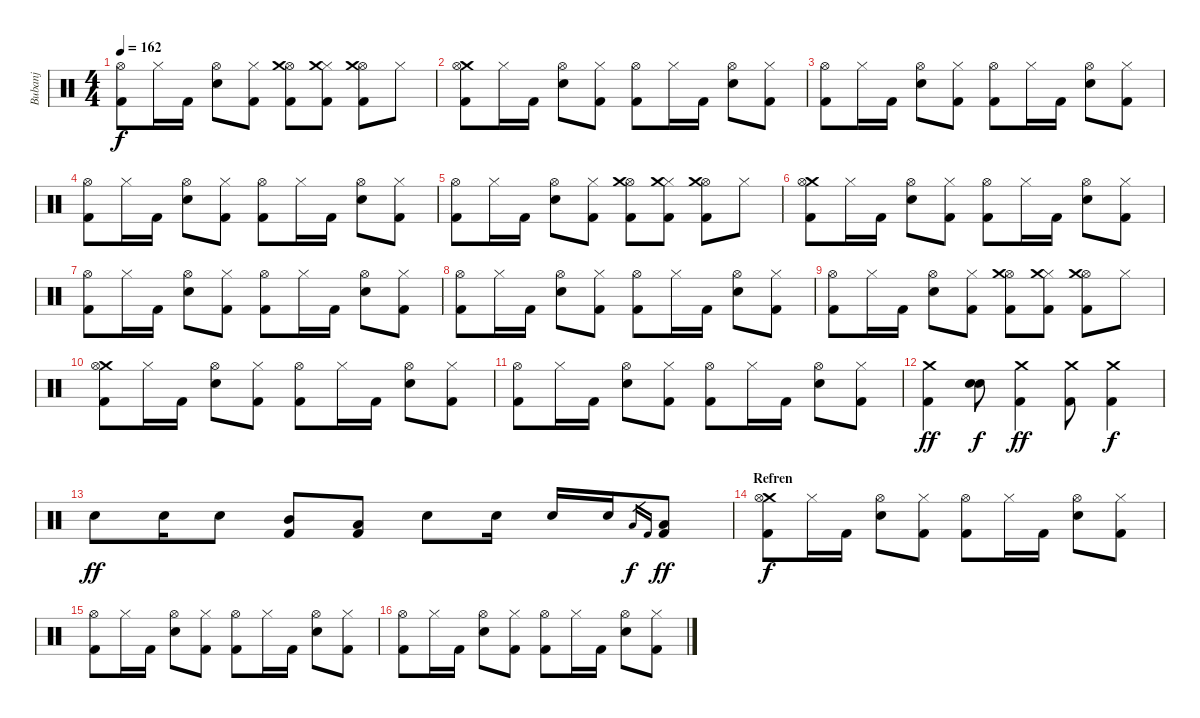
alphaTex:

\track ("Bubanj" "Bubanj") {instrument percussion}
\staff {score}
\articulation defaults
\ts (4 4)
\tempo 162
\clef neutral
\ks c
("Hi-Hat (open)" "Kick (hit) 2").8{dy f} "Hi-Hat (closed)".16 "Kick (hit) 2".16 ("Hi-Hat (open)" "Snare (hit) 2").8 ("Hi-Hat (closed)" "Kick (hit) 2").8 ("Hi-Hat (open)" "Kick (hit) 2" "Crash medium (hit)").8 ("Hi-Hat (closed)" "Kick (hit) 2" "Crash medium (hit)").8 ("Hi-Hat (open)" "Kick (hit) 2" "Crash medium (hit)").8 "Hi-Hat (closed)".8 |
("Crash medium (hit)" "Kick (hit) 2" "Hi-Hat (open)").8 "Hi-Hat (closed)".16 "Kick (hit) 2".16 ("Hi-Hat (open)" "Snare (hit) 2").8 ("Hi-Hat (closed)" "Kick (hit) 2").8 ("Hi-Hat (open)" "Kick (hit) 2").8 "Hi-Hat (closed)".16 "Kick (hit) 2".16 ("Hi-Hat (open)" "Snare (hit) 2").8 ("Hi-Hat (closed)" "Kick (hit) 2").8 |
("Hi-Hat (open)" "Kick (hit) 2").8 "Hi-Hat (closed)".16 "Kick (hit) 2".16 ("Hi-Hat (open)" "Snare (hit) 2").8 ("Hi-Hat (closed)" "Kick (hit) 2").8 ("Hi-Hat (open)" "Kick (hit) 2").8 "Hi-Hat (closed)".16 "Kick (hit) 2".16 ("Hi-Hat (open)" "Snare (hit) 2").8 ("Hi-Hat (closed)" "Kick (hit) 2").8 |
("Hi-Hat (open)" "Kick (hit) 2").8 "Hi-Hat (closed)".16 "Kick (hit) 2".16 ("Hi-Hat (open)" "Snare (hit) 2").8 ("Hi-Hat (closed)" "Kick (hit) 2").8 ("Hi-Hat (open)" "Kick (hit) 2").8 "Hi-Hat (closed)".16 "Kick (hit) 2".16 ("Hi-Hat (open)" "Snare (hit) 2").8 ("Hi-Hat (closed)" "Kick (hit) 2").8 |
("Hi-Hat (open)" "Kick (hit) 2").8 "Hi-Hat (closed)".16 "Kick (hit) 2".16 ("Hi-Hat (open)" "Snare (hit) 2").8 ("Hi-Hat (closed)" "Kick (hit) 2").8 ("Hi-Hat (open)" "Kick (hit) 2" "Crash medium (hit)").8 ("Hi-Hat (closed)" "Kick (hit) 2" "Crash medium (hit)").8 ("Hi-Hat (open)" "Kick (hit) 2" "Crash medium (hit)").8 "Hi-Hat (closed)".8 |
("Crash medium (hit)" "Kick (hit) 2" "Hi-Hat (open)").8 "Hi-Hat (closed)".16 "Kick (hit) 2".16 ("Hi-Hat (open)" "Snare (hit) 2").8 ("Hi-Hat (closed)" "Kick (hit) 2").8 ("Hi-Hat (open)" "Kick (hit) 2").8 "Hi-Hat (closed)".16 "Kick (hit) 2".16 ("Hi-Hat (open)" "Snare (hit) 2").8 ("Hi-Hat (closed)" "Kick (hit) 2").8 |
("Hi-Hat (open)" "Kick (hit) 2").8 "Hi-Hat (closed)".16 "Kick (hit) 2".16 ("Hi-Hat (open)" "Snare (hit) 2").8 ("Hi-Hat (closed)" "Kick (hit) 2").8 ("Hi-Hat (open)" "Kick (hit) 2").8 "Hi-Hat (closed)".16 "Kick (hit) 2".16 ("Hi-Hat (open)" "Snare (hit) 2").8 ("Hi-Hat (closed)" "Kick (hit) 2").8 |
("Hi-Hat (open)" "Kick (hit) 2").8 "Hi-Hat (closed)".16 "Kick (hit) 2".16 ("Hi-Hat (open)" "Snare (hit) 2").8 ("Hi-Hat (closed)" "Kick (hit) 2").8 ("Hi-Hat (open)" "Kick (hit) 2").8 "Hi-Hat (closed)".16 "Kick (hit) 2".16 ("Hi-Hat (open)" "Snare (hit) 2").8 ("Hi-Hat (closed)" "Kick (hit) 2").8 |
("Hi-Hat (open)" "Kick (hit) 2").8 "Hi-Hat (closed)".16 "Kick (hit) 2".16 ("Hi-Hat (open)" "Snare (hit) 2").8 ("Hi-Hat (closed)" "Kick (hit) 2").8 ("Hi-Hat (open)" "Kick (hit) 2" "Crash medium (hit)").8 ("Hi-Hat (closed)" "Kick (hit) 2" "Crash medium (hit)").8 ("Hi-Hat (open)" "Kick (hit) 2" "Crash medium (hit)").8 "Hi-Hat (closed)".8 |
("Crash medium (hit)" "Kick (hit) 2" "Hi-Hat (open)").8 "Hi-Hat (closed)".16 "Kick (hit) 2".16 ("Hi-Hat (open)" "Snare (hit) 2").8 ("Hi-Hat (closed)" "Kick (hit) 2").8 ("Hi-Hat (open)" "Kick (hit) 2").8 "Hi-Hat (closed)".16 "Kick (hit) 2".16 ("Hi-Hat (open)" "Snare (hit) 2").8 ("Hi-Hat (closed)" "Kick (hit) 2").8 |
("Hi-Hat (open)" "Kick (hit) 2").8 "Hi-Hat (closed)".16 "Kick (hit) 2".16 ("Hi-Hat (open)" "Snare (hit) 2").8 ("Hi-Hat (closed)" "Kick (hit) 2").8 ("Hi-Hat (open)" "Kick (hit) 2").8 "Hi-Hat (closed)".16 "Kick (hit) 2".16 ("Hi-Hat (open)" "Snare (hit) 2").8 ("Hi-Hat (closed)" "Kick (hit) 2").8 |
("Crash medium (hit)" "Kick (hit) 2").4{dy ff} ("Snare (hit) 2" "Snare (hit) 2").8{dy f} ("Crash medium (hit)" "Kick (hit) 2").4{dy ff} ("Crash medium (hit)" "Kick (hit) 2").8 ("Crash medium (hit)" "Kick (hit) 2").4{dy f} |
"Snare (hit) 2".8{dy ff} "Snare (hit) 2".16 "Snare (hit) 2".8 ("Mid Tom (hit)" "Kick (hit) 2").8 ("Low Tom (hit)" "Kick (hit) 2").8 "Snare (hit) 2".8 "Snare (hit) 2".16 "Snare (hit) 2".16 "Snare (hit) 2".16 "Low Floor Tom (hit)".16{gr dy f} "Kick (hit) 2".16{gr} ("Low Tom (hit)" "Kick (hit) 2").8{dy ff} |
\section ("" "Refren")
("Crash medium (hit)" "Kick (hit) 2" "Hi-Hat (open)").8{dy f} "Hi-Hat (closed)".16 "Kick (hit) 2".16 ("Hi-Hat (open)" "Snare (hit) 2").8 ("Hi-Hat (closed)" "Kick (hit) 2").8 ("Hi-Hat (open)" "Kick (hit) 2").8 "Hi-Hat (closed)".16 "Kick (hit) 2".16 ("Hi-Hat (open)" "Snare (hit) 2").8 ("Hi-Hat (closed)" "Kick (hit) 2").8 |
("Hi-Hat (open)" "Kick (hit) 2").8 "Hi-Hat (closed)".16 "Kick (hit) 2".16 ("Hi-Hat (open)" "Snare (hit) 2").8 ("Hi-Hat (closed)" "Kick (hit) 2").8 ("Hi-Hat (open)" "Kick (hit) 2").8 "Hi-Hat (closed)".16 "Kick (hit) 2".16 ("Hi-Hat (open)" "Snare (hit) 2").8 ("Hi-Hat (closed)" "Kick (hit) 2").8 |
("Hi-Hat (open)" "Kick (hit) 2").8 "Hi-Hat (closed)".16 "Kick (hit) 2".16 ("Hi-Hat (open)" "Snare (hit) 2").8 ("Hi-Hat (closed)" "Kick (hit) 2").8 ("Hi-Hat (open)" "Kick (hit) 2").8 "Hi-Hat (closed)".16 "Kick (hit) 2".16 ("Hi-Hat (open)" "Snare (hit) 2").8 ("Hi-Hat (closed)" "Kick (hit) 2").8
